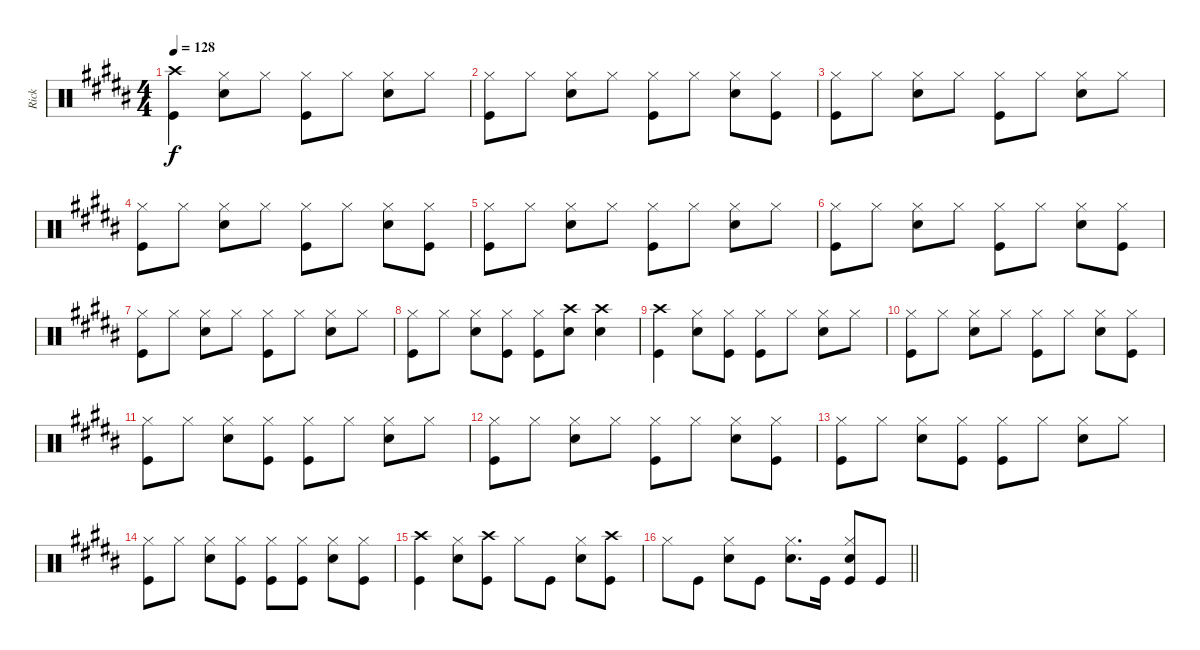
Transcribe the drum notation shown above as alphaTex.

\track ("Rick" "Rick") {instrument percussion}
\staff {score}
\articulation defaults
\ts (4 4)
\tempo 128
\clef neutral
\ks b
("Crash high (hit)" "Kick (hit)").4{dy f} ("Hi-Hat (closed)" "Snare (hit) 2").8 "Hi-Hat (closed)".8 ("Hi-Hat (closed)" "Kick (hit)").8 "Hi-Hat (closed)".8 ("Hi-Hat (closed)" "Snare (hit) 2").8 "Hi-Hat (closed)".8 |
("Hi-Hat (closed)" "Kick (hit)").8 "Hi-Hat (closed)".8 ("Hi-Hat (closed)" "Snare (hit) 2").8 "Hi-Hat (closed)".8 ("Hi-Hat (closed)" "Kick (hit)").8 "Hi-Hat (closed)".8 ("Hi-Hat (closed)" "Snare (hit) 2").8 ("Hi-Hat (closed)" "Kick (hit)").8 |
("Hi-Hat (closed)" "Kick (hit)").8 "Hi-Hat (closed)".8 ("Hi-Hat (closed)" "Snare (hit) 2").8 "Hi-Hat (closed)".8 ("Hi-Hat (closed)" "Kick (hit)").8 "Hi-Hat (closed)".8 ("Hi-Hat (closed)" "Snare (hit) 2").8 "Hi-Hat (closed)".8 |
("Hi-Hat (closed)" "Kick (hit)").8 "Hi-Hat (closed)".8 ("Hi-Hat (closed)" "Snare (hit) 2").8 "Hi-Hat (closed)".8 ("Hi-Hat (closed)" "Kick (hit)").8 "Hi-Hat (closed)".8 ("Hi-Hat (closed)" "Snare (hit) 2").8 ("Hi-Hat (closed)" "Kick (hit)").8 |
("Hi-Hat (closed)" "Kick (hit)").8 "Hi-Hat (closed)".8 ("Hi-Hat (closed)" "Snare (hit) 2").8 "Hi-Hat (closed)".8 ("Hi-Hat (closed)" "Kick (hit)").8 "Hi-Hat (closed)".8 ("Hi-Hat (closed)" "Snare (hit) 2").8 "Hi-Hat (closed)".8 |
("Hi-Hat (closed)" "Kick (hit)").8 "Hi-Hat (closed)".8 ("Hi-Hat (closed)" "Snare (hit) 2").8 "Hi-Hat (closed)".8 ("Hi-Hat (closed)" "Kick (hit)").8 "Hi-Hat (closed)".8 ("Hi-Hat (closed)" "Snare (hit) 2").8 ("Hi-Hat (closed)" "Kick (hit)").8 |
("Hi-Hat (closed)" "Kick (hit)").8 "Hi-Hat (closed)".8 ("Hi-Hat (closed)" "Snare (hit) 2").8 "Hi-Hat (closed)".8 ("Hi-Hat (closed)" "Kick (hit)").8 "Hi-Hat (closed)".8 ("Hi-Hat (closed)" "Snare (hit) 2").8 "Hi-Hat (closed)".8 |
("Hi-Hat (closed)" "Kick (hit)").8 "Hi-Hat (closed)".8 ("Hi-Hat (closed)" "Snare (hit) 2").8 ("Hi-Hat (closed)" "Kick (hit)").8 ("Hi-Hat (closed)" "Kick (hit)").8 ("Crash high (hit)" "Snare (hit) 2").8 ("Crash high (hit)" "Snare (hit) 2").4 |
("Crash high (hit)" "Kick (hit)").4 ("Hi-Hat (closed)" "Snare (hit) 2").8 ("Hi-Hat (closed)" "Kick (hit)").8 ("Hi-Hat (closed)" "Kick (hit)").8 "Hi-Hat (closed)".8 ("Hi-Hat (closed)" "Snare (hit) 2").8 "Hi-Hat (closed)".8 |
("Hi-Hat (closed)" "Kick (hit)").8 "Hi-Hat (closed)".8 ("Hi-Hat (closed)" "Snare (hit) 2").8 "Hi-Hat (closed)".8 ("Hi-Hat (closed)" "Kick (hit)").8 "Hi-Hat (closed)".8 ("Hi-Hat (closed)" "Snare (hit) 2").8 ("Hi-Hat (closed)" "Kick (hit)").8 |
("Hi-Hat (closed)" "Kick (hit)").8 "Hi-Hat (closed)".8 ("Hi-Hat (closed)" "Snare (hit) 2").8 ("Hi-Hat (closed)" "Kick (hit)").8 ("Hi-Hat (closed)" "Kick (hit)").8 "Hi-Hat (closed)".8 ("Hi-Hat (closed)" "Snare (hit) 2").8 "Hi-Hat (closed)".8 |
("Hi-Hat (closed)" "Kick (hit)").8 "Hi-Hat (closed)".8 ("Hi-Hat (closed)" "Snare (hit) 2").8 "Hi-Hat (closed)".8 ("Hi-Hat (closed)" "Kick (hit)").8 "Hi-Hat (closed)".8 ("Hi-Hat (closed)" "Snare (hit) 2").8 ("Hi-Hat (closed)" "Kick (hit)").8 |
("Hi-Hat (closed)" "Kick (hit)").8 "Hi-Hat (closed)".8 ("Hi-Hat (closed)" "Snare (hit) 2").8 ("Hi-Hat (closed)" "Kick (hit)").8 ("Hi-Hat (closed)" "Kick (hit)").8 "Hi-Hat (closed)".8 ("Hi-Hat (closed)" "Snare (hit) 2").8 "Hi-Hat (closed)".8 |
("Hi-Hat (closed)" "Kick (hit)").8 "Hi-Hat (closed)".8 ("Hi-Hat (closed)" "Snare (hit) 2").8 ("Hi-Hat (closed)" "Kick (hit)").8 ("Hi-Hat (closed)" "Kick (hit)").8 ("Hi-Hat (closed)" "Kick (hit)").8 ("Hi-Hat (closed)" "Snare (hit) 2").8 ("Hi-Hat (closed)" "Kick (hit)").8 |
("Crash high (hit)" "Kick (hit)").4 ("Hi-Hat (closed)" "Snare (hit) 2").8 ("Crash high (hit)" "Kick (hit)").8 "Hi-Hat (closed)".8 "Kick (hit)".8 ("Hi-Hat (closed)" "Snare (hit) 2").8 ("Crash high (hit)" "Kick (hit)").8 |
\barLineRight lightlight "Hi-Hat (closed)".8 "Kick (hit)".8
("Hi-Hat (closed)" "Snare (hit) 2").8 "Kick (hit)".8 ("Hi-Hat (closed)" "Snare (hit) 2").8{d} "Kick (hit)".16 ("Hi-Hat (closed)" "Snare (hit) 2" "Kick (hit)").8 "Kick (hit)".8
